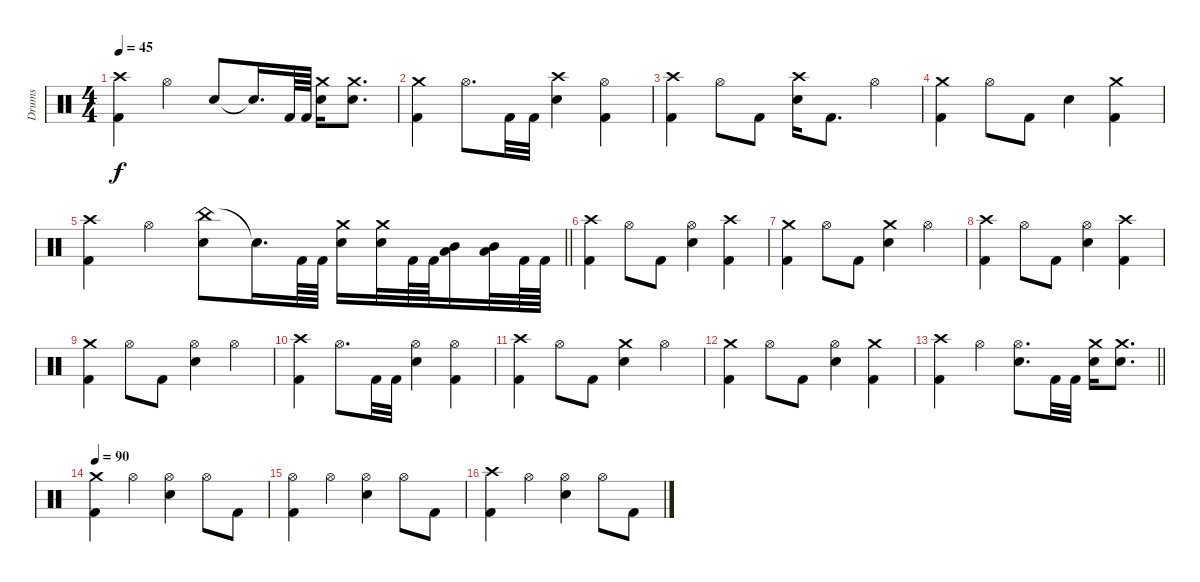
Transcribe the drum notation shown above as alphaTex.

\track ("Drums" "Drums") {instrument percussion}
\staff {score}
\articulation defaults
\ts (4 4)
\tempo 45
\clef neutral
\ks c
("Crash high (hit)" "Kick (hit) 2").4{dy f} "Hi-Hat (open)".4 "Snare (hit) 2".8 "Snare (hit)"{t}.16{d} "Kick (hit) 2".64 "Kick (hit) 2".64 ("Crash medium (hit)" "Snare (hit) 2").16 ("Crash medium (hit)" "Snare (hit) 2").8{d} |
("Crash medium (hit)" "Kick (hit) 2").4 "Hi-Hat (open)".8{d} "Kick (hit) 2".32 "Kick (hit) 2".32 ("Crash high (hit)" "Snare (hit) 2").4 ("Hi-Hat (open)" "Kick (hit) 2").4 |
("Crash high (hit)" "Kick (hit) 2").4 "Hi-Hat (open)".8 "Kick (hit) 2".8 ("Crash high (hit)" "Snare (hit) 2").16 "Kick (hit) 2".8{d} "Hi-Hat (open)".4 |
("Crash medium (hit)" "Kick (hit) 2").4 "Hi-Hat (open)".8 "Kick (hit) 2".8 "Snare (hit) 2".4 ("Crash medium (hit)" "Kick (hit) 2").4 |
\barLineRight lightlight
("Crash high (hit)" "Kick (hit) 2").4 "Hi-Hat (open)".4 ("China (hit)" "Snare (hit) 2").8 "Snare (hit)"{t}.16{d} "Kick (hit) 2".64 "Kick (hit) 2".64 ("Crash medium (hit)" "Snare (hit) 2").16 ("Crash medium (hit)" "Snare (hit) 2").32 "Kick (hit) 2".64 "Kick (hit) 2".64 ("Mid Tom (hit)" "Low Tom (hit)").16 ("Mid Tom (hit)" "Low Tom (hit)").32 "Kick (hit) 2".64 "Kick (hit) 2".64 |
("Crash high (hit)" "Kick (hit) 2").4 "Hi-Hat (open)".8 "Kick (hit) 2".8 ("Hi-Hat (open)" "Snare (hit) 2").4 ("Crash high (hit)" "Kick (hit) 2").4 |
("Crash medium (hit)" "Kick (hit) 2").4 "Hi-Hat (open)".8 "Kick (hit) 2".8 ("Crash medium (hit)" "Snare (hit) 2").4 "Hi-Hat (open)".4 |
("Crash high (hit)" "Kick (hit) 2").4 "Hi-Hat (open)".8 "Kick (hit) 2".8 ("Hi-Hat (open)" "Snare (hit) 2").4 ("Crash high (hit)" "Kick (hit) 2").4 |
("Crash medium (hit)" "Kick (hit) 2").4 "Hi-Hat (open)".8 "Kick (hit) 2".8 ("Hi-Hat (open)" "Snare (hit) 2").4 "Hi-Hat (open)".4 |
("Crash high (hit)" "Kick (hit) 2").4 "Hi-Hat (open)".8{d} "Kick (hit) 2".32 "Kick (hit) 2".32 ("Hi-Hat (open)" "Snare (hit) 2").4 ("Hi-Hat (open)" "Kick (hit) 2").4 |
("Crash high (hit)" "Kick (hit) 2").4 "Hi-Hat (open)".8 "Kick (hit) 2".8 ("Crash medium (hit)" "Snare (hit) 2").4 "Hi-Hat (open)".4 |
("Crash medium (hit)" "Kick (hit) 2").4 "Hi-Hat (open)".8 "Kick (hit) 2".8 ("Hi-Hat (open)" "Snare (hit) 2").4 ("Crash medium (hit)" "Kick (hit) 2").4 |
\barLineRight lightlight
("Crash high (hit)" "Kick (hit) 2").4 "Hi-Hat (open)".4 ("Hi-Hat (open)" "Snare (hit) 2").8{d} "Kick (hit) 2".32 "Kick (hit) 2".32 ("Crash medium (hit)" "Snare (hit) 2").16 ("Crash medium (hit)" "Snare (hit) 2").8{d} |
\tempo 90
("Crash medium (hit)" "Kick (hit) 2").4 "Hi-Hat (open)".4 ("Hi-Hat (open)" "Snare (hit) 2").4 "Hi-Hat (open)".8 "Kick (hit) 2".8 |
("Hi-Hat (open)" "Kick (hit) 2").4 "Hi-Hat (open)".4 ("Hi-Hat (open)" "Snare (hit) 2").4 "Hi-Hat (open)".8 "Kick (hit) 2".8 |
("Crash high (hit)" "Kick (hit) 2").4 "Hi-Hat (open)".4 ("Hi-Hat (open)" "Snare (hit) 2").4 "Hi-Hat (open)".8 "Kick (hit) 2".8
